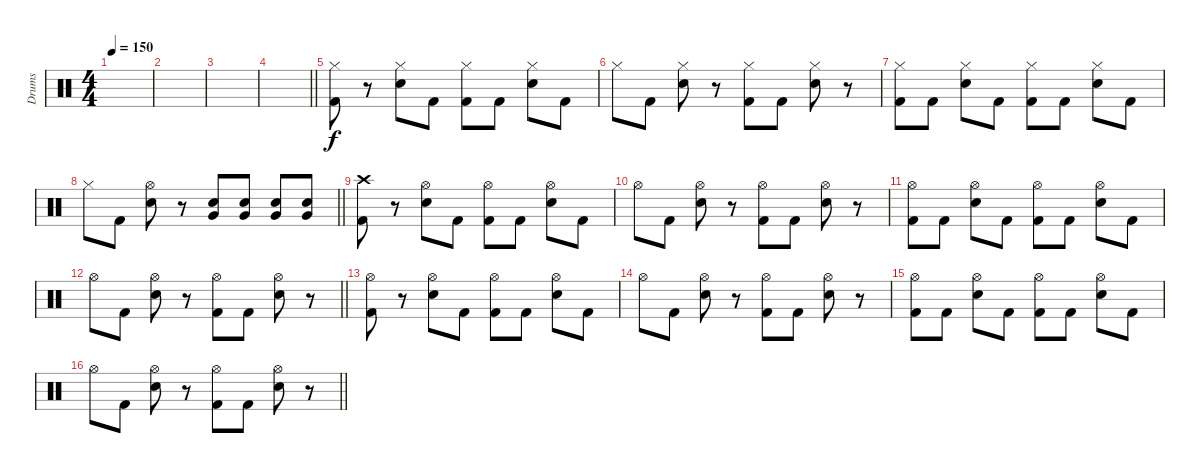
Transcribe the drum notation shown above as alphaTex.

\track ("Drums" "Drums") {instrument percussion}
\staff {score}
\articulation defaults
\ts (4 4)
\tempo 150
\clef neutral
\ks c
|
|
|
\barLineRight lightlight
|
("Hi-Hat (closed)" "Kick (hit) 2").8 r.8 ("Hi-Hat (closed)" "Snare (hit) 2").8 "Kick (hit) 2".8 ("Hi-Hat (closed)" "Kick (hit) 2").8 "Kick (hit) 2".8 ("Hi-Hat (closed)" "Snare (hit) 2").8 "Kick (hit) 2".8 |
"Hi-Hat (closed)".8 "Kick (hit) 2".8 ("Hi-Hat (closed)" "Snare (hit) 2").8 r.8 ("Hi-Hat (closed)" "Kick (hit) 2").8 "Kick (hit) 2".8 ("Hi-Hat (closed)" "Snare (hit) 2").8 r.8 |
("Hi-Hat (closed)" "Kick (hit) 2").8 "Kick (hit) 2".8 ("Hi-Hat (closed)" "Snare (hit) 2").8 "Kick (hit) 2".8 ("Hi-Hat (closed)" "Kick (hit) 2").8 "Kick (hit) 2".8 ("Hi-Hat (closed)" "Snare (hit) 2").8 "Kick (hit) 2".8 |
\barLineRight lightlight "Hi-Hat (closed)".8 "Kick (hit) 2".8
("Hi-Hat (open)" "Snare (hit) 2").8 r.8 ("Snare (hit) 2" "Very Low Tom (hit)").8{bd 120} ("Snare (hit) 2" "Very Low Tom (hit)").8{bd 120} ("Snare (hit) 2" "Very Low Tom (hit)").8{bd 120} ("Snare (hit) 2" "Very Low Tom (hit)").8{bd 120} |
("Crash high (hit)" "Kick (hit) 2").8 r.8 ("Hi-Hat (open)" "Snare (hit) 2").8 "Kick (hit) 2".8 ("Hi-Hat (open)" "Kick (hit) 2").8 "Kick (hit) 2".8 ("Hi-Hat (open)" "Snare (hit) 2").8 "Kick (hit) 2".8 |
"Hi-Hat (open)".8 "Kick (hit) 2".8 ("Hi-Hat (open)" "Snare (hit) 2").8 r.8 ("Hi-Hat (open)" "Kick (hit) 2").8 "Kick (hit) 2".8 ("Hi-Hat (open)" "Snare (hit) 2").8 r.8 |
("Hi-Hat (open)" "Kick (hit) 2").8 "Kick (hit) 2".8 ("Hi-Hat (open)" "Snare (hit) 2").8 "Kick (hit) 2".8 ("Hi-Hat (open)" "Kick (hit) 2").8 "Kick (hit) 2".8 ("Hi-Hat (open)" "Snare (hit) 2").8 "Kick (hit) 2".8 |
\barLineRight lightlight "Hi-Hat (open)".8 "Kick (hit) 2".8
("Hi-Hat (open)" "Snare (hit) 2").8 r.8 ("Hi-Hat (open)" "Kick (hit) 2").8 "Kick (hit) 2".8 ("Hi-Hat (open)" "Snare (hit) 2").8 r.8 |
("Hi-Hat (open)" "Kick (hit) 2").8 r.8 ("Hi-Hat (open)" "Snare (hit) 2").8 "Kick (hit) 2".8 ("Hi-Hat (open)" "Kick (hit) 2").8 "Kick (hit) 2".8 ("Hi-Hat (open)" "Snare (hit) 2").8 "Kick (hit) 2".8 |
"Hi-Hat (open)".8 "Kick (hit) 2".8 ("Hi-Hat (open)" "Snare (hit) 2").8 r.8 ("Hi-Hat (open)" "Kick (hit) 2").8 "Kick (hit) 2".8 ("Hi-Hat (open)" "Snare (hit) 2").8 r.8 |
("Hi-Hat (open)" "Kick (hit) 2").8 "Kick (hit) 2".8 ("Hi-Hat (open)" "Snare (hit) 2").8 "Kick (hit) 2".8 ("Hi-Hat (open)" "Kick (hit) 2").8 "Kick (hit) 2".8 ("Hi-Hat (open)" "Snare (hit) 2").8 "Kick (hit) 2".8 |
\barLineRight lightlight "Hi-Hat (open)".8 "Kick (hit) 2".8
("Hi-Hat (open)" "Snare (hit) 2").8 r.8 ("Hi-Hat (open)" "Kick (hit) 2").8 "Kick (hit) 2".8 ("Hi-Hat (open)" "Snare (hit) 2").8 r.8
